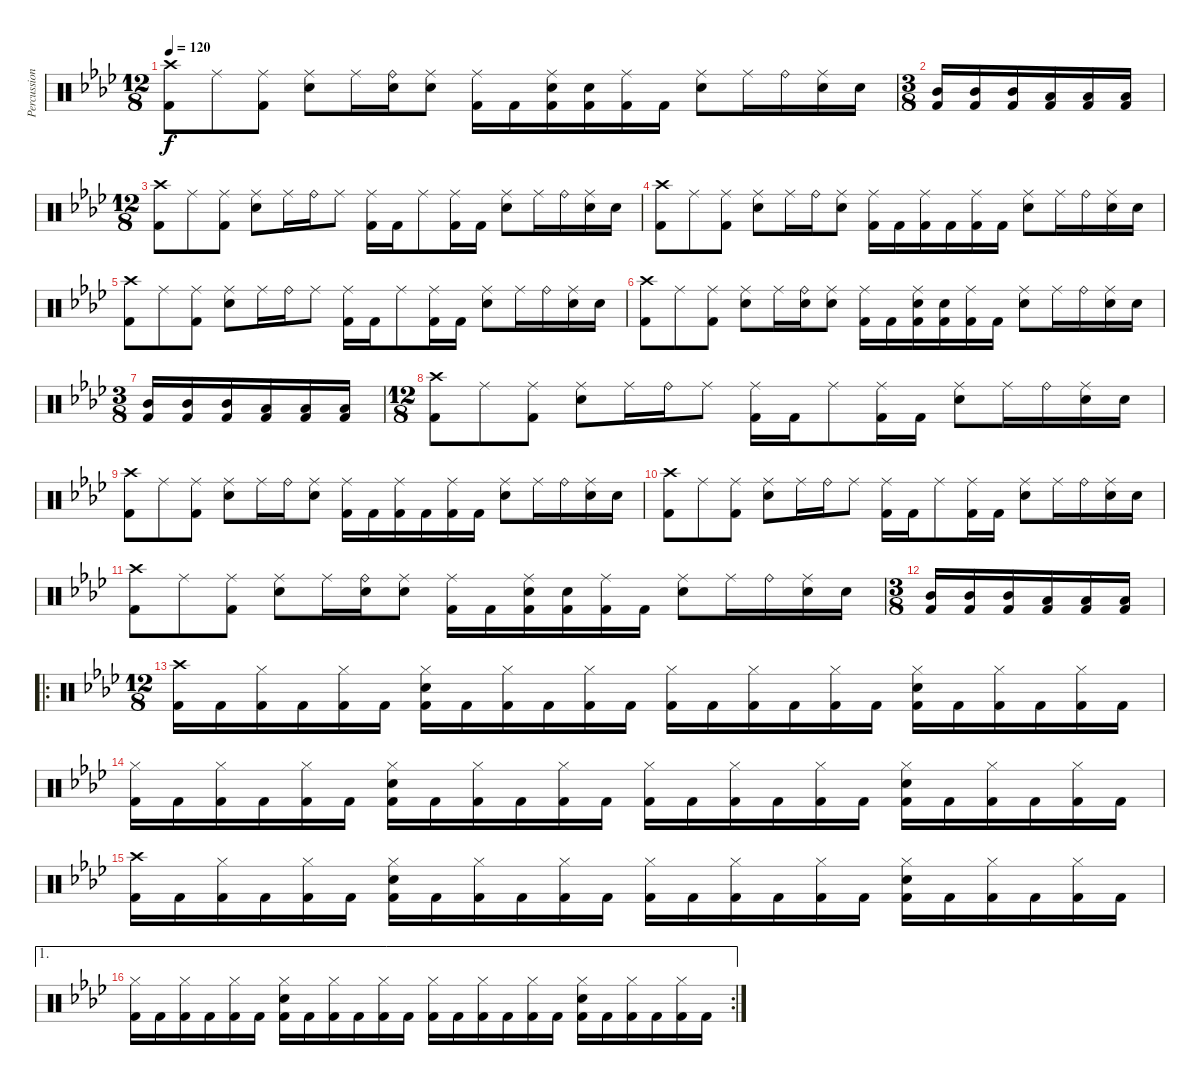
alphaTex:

\track ("Percussions" "Percussion") {instrument percussion}
\staff {score}
\articulation defaults
\ts (12 8)
\tempo 120
\clef neutral
\ks fminor
("Crash high (hit)" "Kick (hit) 2").8{dy f} "Ride (middle)".8 ("Ride (middle)" "Kick (hit) 2").8 ("Ride (middle)" "Snare (hit) 2").8 "Ride (middle)".16 ("Ride (bell)" "Snare (hit) 2").16 ("Ride (middle)" "Snare (hit) 2").8 ("Ride (middle)" "Kick (hit) 2").16 "Kick (hit) 2".16 ("Ride (middle)" "Snare (hit) 2" "Kick (hit) 2").16 ("Snare (hit) 2" "Kick (hit) 2").16 ("Ride (middle)" "Kick (hit) 2").16 "Kick (hit) 2".16 ("Ride (middle)" "Snare (hit) 2").8 "Ride (middle)".16 "Ride (bell)".16 ("Ride (middle)" "Snare (hit) 2").16 "Snare (hit) 2".16 |
\ts (3 8)
("Mid Tom (hit)" "Kick (hit) 2").16 ("Mid Tom (hit)" "Kick (hit) 2").16 ("Mid Tom (hit)" "Kick (hit) 2").16 ("Low Tom (hit)" "Kick (hit) 2").16 ("Low Tom (hit)" "Kick (hit) 2").16 ("Low Tom (hit)" "Kick (hit) 2").16 |
\ts (12 8)
("Crash high (hit)" "Kick (hit) 2").8 "Ride (middle)".8 ("Ride (middle)" "Kick (hit) 2").8 ("Ride (middle)" "Snare (hit) 2").8 "Ride (middle)".16 "Ride (bell)".16 "Ride (middle)".8 ("Ride (middle)" "Kick (hit) 2").16 "Kick (hit) 2".16 "Ride (middle)".8 ("Ride (middle)" "Kick (hit) 2").16 "Kick (hit) 2".16 ("Ride (middle)" "Snare (hit) 2").8 "Ride (middle)".16 "Ride (bell)".16 ("Ride (middle)" "Snare (hit) 2").16 "Snare (hit) 2".16 |
("Crash high (hit)" "Kick (hit) 2").8 "Ride (middle)".8 ("Ride (middle)" "Kick (hit) 2").8 ("Ride (middle)" "Snare (hit) 2").8 "Ride (middle)".16 "Ride (bell)".16 ("Ride (middle)" "Snare (hit) 2").8 ("Ride (middle)" "Kick (hit) 2").16 "Kick (hit) 2".16 ("Ride (middle)" "Kick (hit) 2").16 "Kick (hit) 2".16 ("Ride (middle)" "Kick (hit) 2").16 "Kick (hit) 2".16 ("Ride (middle)" "Snare (hit) 2").8 "Ride (middle)".16 "Ride (bell)".16 ("Ride (middle)" "Snare (hit) 2").16 "Snare (hit) 2".16 |
("Crash high (hit)" "Kick (hit) 2").8 "Ride (middle)".8 ("Ride (middle)" "Kick (hit) 2").8 ("Ride (middle)" "Snare (hit) 2").8 "Ride (middle)".16 "Ride (bell)".16 "Ride (middle)".8 ("Ride (middle)" "Kick (hit) 2").16 "Kick (hit) 2".16 "Ride (middle)".8 ("Ride (middle)" "Kick (hit) 2").16 "Kick (hit) 2".16 ("Ride (middle)" "Snare (hit) 2").8 "Ride (middle)".16 "Ride (bell)".16 ("Ride (middle)" "Snare (hit) 2").16 "Snare (hit) 2".16 |
("Crash high (hit)" "Kick (hit) 2").8 "Ride (middle)".8 ("Ride (middle)" "Kick (hit) 2").8 ("Ride (middle)" "Snare (hit) 2").8 "Ride (middle)".16 ("Ride (bell)" "Snare (hit) 2").16 ("Ride (middle)" "Snare (hit) 2").8 ("Ride (middle)" "Kick (hit) 2").16 "Kick (hit) 2".16 ("Ride (middle)" "Snare (hit) 2" "Kick (hit) 2").16 ("Snare (hit) 2" "Kick (hit) 2").16 ("Ride (middle)" "Kick (hit) 2").16 "Kick (hit) 2".16 ("Ride (middle)" "Snare (hit) 2").8 "Ride (middle)".16 "Ride (bell)".16 ("Ride (middle)" "Snare (hit) 2").16 "Snare (hit) 2".16 |
\ts (3 8)
("Mid Tom (hit)" "Kick (hit) 2").16 ("Mid Tom (hit)" "Kick (hit) 2").16 ("Mid Tom (hit)" "Kick (hit) 2").16 ("Low Tom (hit)" "Kick (hit) 2").16 ("Low Tom (hit)" "Kick (hit) 2").16 ("Low Tom (hit)" "Kick (hit) 2").16 |
\ts (12 8)
("Crash high (hit)" "Kick (hit) 2").8 "Ride (middle)".8 ("Ride (middle)" "Kick (hit) 2").8 ("Ride (middle)" "Snare (hit) 2").8 "Ride (middle)".16 "Ride (bell)".16 "Ride (middle)".8 ("Ride (middle)" "Kick (hit) 2").16 "Kick (hit) 2".16 "Ride (middle)".8 ("Ride (middle)" "Kick (hit) 2").16 "Kick (hit) 2".16 ("Ride (middle)" "Snare (hit) 2").8 "Ride (middle)".16 "Ride (bell)".16 ("Ride (middle)" "Snare (hit) 2").16 "Snare (hit) 2".16 |
("Crash high (hit)" "Kick (hit) 2").8 "Ride (middle)".8 ("Ride (middle)" "Kick (hit) 2").8 ("Ride (middle)" "Snare (hit) 2").8 "Ride (middle)".16 "Ride (bell)".16 ("Ride (middle)" "Snare (hit) 2").8 ("Ride (middle)" "Kick (hit) 2").16 "Kick (hit) 2".16 ("Ride (middle)" "Kick (hit) 2").16 "Kick (hit) 2".16 ("Ride (middle)" "Kick (hit) 2").16 "Kick (hit) 2".16 ("Ride (middle)" "Snare (hit) 2").8 "Ride (middle)".16 "Ride (bell)".16 ("Ride (middle)" "Snare (hit) 2").16 "Snare (hit) 2".16 |
("Crash high (hit)" "Kick (hit) 2").8 "Ride (middle)".8 ("Ride (middle)" "Kick (hit) 2").8 ("Ride (middle)" "Snare (hit) 2").8 "Ride (middle)".16 "Ride (bell)".16 "Ride (middle)".8 ("Ride (middle)" "Kick (hit) 2").16 "Kick (hit) 2".16 "Ride (middle)".8 ("Ride (middle)" "Kick (hit) 2").16 "Kick (hit) 2".16 ("Ride (middle)" "Snare (hit) 2").8 "Ride (middle)".16 "Ride (bell)".16 ("Ride (middle)" "Snare (hit) 2").16 "Snare (hit) 2".16 |
("Crash high (hit)" "Kick (hit) 2").8 "Ride (middle)".8 ("Ride (middle)" "Kick (hit) 2").8 ("Ride (middle)" "Snare (hit) 2").8 "Ride (middle)".16 ("Ride (bell)" "Snare (hit) 2").16 ("Ride (middle)" "Snare (hit) 2").8 ("Ride (middle)" "Kick (hit) 2").16 "Kick (hit) 2".16 ("Ride (middle)" "Snare (hit) 2" "Kick (hit) 2").16 ("Snare (hit) 2" "Kick (hit) 2").16 ("Ride (middle)" "Kick (hit) 2").16 "Kick (hit) 2".16 ("Ride (middle)" "Snare (hit) 2").8 "Ride (middle)".16 "Ride (bell)".16 ("Ride (middle)" "Snare (hit) 2").16 "Snare (hit) 2".16 |
\ts (3 8)
("Mid Tom (hit)" "Kick (hit) 2").16 ("Mid Tom (hit)" "Kick (hit) 2").16 ("Mid Tom (hit)" "Kick (hit) 2").16 ("Low Tom (hit)" "Kick (hit) 2").16 ("Low Tom (hit)" "Kick (hit) 2").16 ("Low Tom (hit)" "Kick (hit) 2").16 |
\ro
\ts (12 8)
("Crash high (hit)" "Kick (hit) 2").16 "Kick (hit) 2".16 ("Hi-Hat (closed)" "Kick (hit) 2").16 "Kick (hit) 2".16 ("Hi-Hat (closed)" "Kick (hit) 2").16 "Kick (hit) 2".16 ("Hi-Hat (closed)" "Snare (hit) 2" "Kick (hit) 2").16 "Kick (hit) 2".16 ("Hi-Hat (closed)" "Kick (hit) 2").16 "Kick (hit) 2".16 ("Hi-Hat (closed)" "Kick (hit) 2").16 "Kick (hit) 2".16 ("Hi-Hat (closed)" "Kick (hit) 2").16 "Kick (hit) 2".16 ("Hi-Hat (closed)" "Kick (hit) 2").16 "Kick (hit) 2".16 ("Hi-Hat (closed)" "Kick (hit) 2").16 "Kick (hit) 2".16 ("Hi-Hat (closed)" "Snare (hit) 2" "Kick (hit) 2").16 "Kick (hit) 2".16 ("Hi-Hat (closed)" "Kick (hit) 2").16 "Kick (hit) 2".16 ("Hi-Hat (closed)" "Kick (hit) 2").16 "Kick (hit) 2".16 |
("Hi-Hat (closed)" "Kick (hit) 2").16 "Kick (hit) 2".16 ("Hi-Hat (closed)" "Kick (hit) 2").16 "Kick (hit) 2".16 ("Hi-Hat (closed)" "Kick (hit) 2").16 "Kick (hit) 2".16 ("Hi-Hat (closed)" "Snare (hit) 2" "Kick (hit) 2").16 "Kick (hit) 2".16 ("Hi-Hat (closed)" "Kick (hit) 2").16 "Kick (hit) 2".16 ("Hi-Hat (closed)" "Kick (hit) 2").16 "Kick (hit) 2".16 ("Hi-Hat (closed)" "Kick (hit) 2").16 "Kick (hit) 2".16 ("Hi-Hat (closed)" "Kick (hit) 2").16 "Kick (hit) 2".16 ("Hi-Hat (closed)" "Kick (hit) 2").16 "Kick (hit) 2".16 ("Hi-Hat (closed)" "Snare (hit) 2" "Kick (hit) 2").16 "Kick (hit) 2".16 ("Hi-Hat (closed)" "Kick (hit) 2").16 "Kick (hit) 2".16 ("Hi-Hat (closed)" "Kick (hit) 2").16 "Kick (hit) 2".16 |
("Crash high (hit)" "Kick (hit) 2").16 "Kick (hit) 2".16 ("Hi-Hat (closed)" "Kick (hit) 2").16 "Kick (hit) 2".16 ("Hi-Hat (closed)" "Kick (hit) 2").16 "Kick (hit) 2".16 ("Hi-Hat (closed)" "Snare (hit) 2" "Kick (hit) 2").16 "Kick (hit) 2".16 ("Hi-Hat (closed)" "Kick (hit) 2").16 "Kick (hit) 2".16 ("Hi-Hat (closed)" "Kick (hit) 2").16 "Kick (hit) 2".16 ("Hi-Hat (closed)" "Kick (hit) 2").16 "Kick (hit) 2".16 ("Hi-Hat (closed)" "Kick (hit) 2").16 "Kick (hit) 2".16 ("Hi-Hat (closed)" "Kick (hit) 2").16 "Kick (hit) 2".16 ("Hi-Hat (closed)" "Snare (hit) 2" "Kick (hit) 2").16 "Kick (hit) 2".16 ("Hi-Hat (closed)" "Kick (hit) 2").16 "Kick (hit) 2".16 ("Hi-Hat (closed)" "Kick (hit) 2").16 "Kick (hit) 2".16 |
\ae 1
\rc 2
("Hi-Hat (closed)" "Kick (hit) 2").16 "Kick (hit) 2".16 ("Hi-Hat (closed)" "Kick (hit) 2").16 "Kick (hit) 2".16 ("Hi-Hat (closed)" "Kick (hit) 2").16 "Kick (hit) 2".16 ("Hi-Hat (closed)" "Snare (hit) 2" "Kick (hit) 2").16 "Kick (hit) 2".16 ("Hi-Hat (closed)" "Kick (hit) 2").16 "Kick (hit) 2".16 ("Hi-Hat (closed)" "Kick (hit) 2").16 "Kick (hit) 2".16 ("Hi-Hat (closed)" "Kick (hit) 2").16 "Kick (hit) 2".16 ("Hi-Hat (closed)" "Kick (hit) 2").16 "Kick (hit) 2".16 ("Hi-Hat (closed)" "Kick (hit) 2").16 "Kick (hit) 2".16 ("Hi-Hat (closed)" "Snare (hit) 2" "Kick (hit) 2").16 "Kick (hit) 2".16 ("Hi-Hat (closed)" "Kick (hit) 2").16 "Kick (hit) 2".16 ("Hi-Hat (closed)" "Kick (hit) 2").16 "Kick (hit) 2".16
